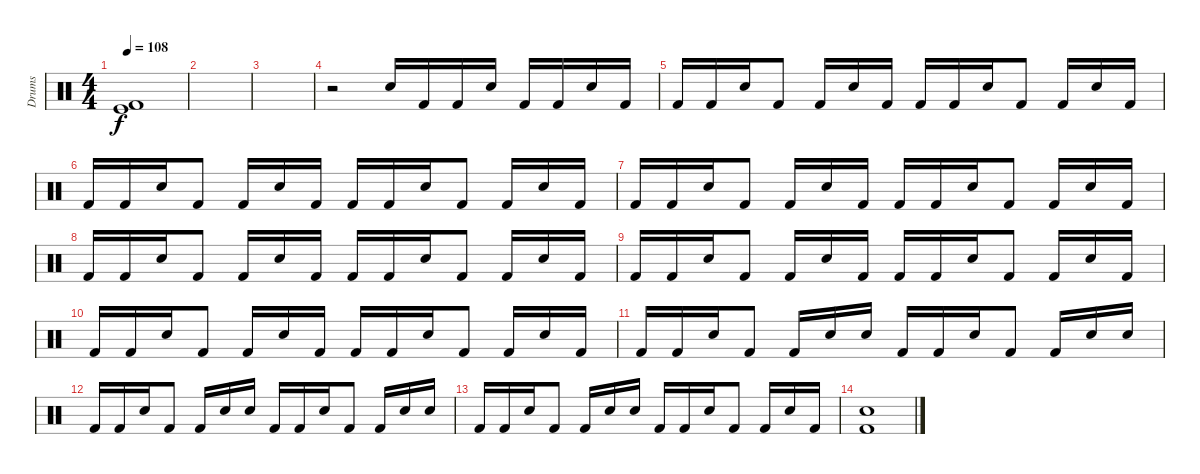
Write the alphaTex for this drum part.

\track ("Drums" "Drums") {instrument percussion}
\staff {score}
\articulation defaults
\ts (4 4)
\tempo 108
\clef neutral
\ks c
("Kick (hit)" "Kick (hit) 2").1{dy f} |
|
|
r.2 "Snare (hit) 2".16 "Kick (hit) 2".16 "Kick (hit) 2".16 "Snare (hit) 2".16 "Kick (hit) 2".16 "Kick (hit) 2".16 "Snare (hit) 2".16 "Kick (hit) 2".16 |
"Kick (hit) 2".16 "Kick (hit) 2".16 "Snare (hit) 2".16 "Kick (hit) 2".8 "Kick (hit) 2".16 "Snare (hit) 2".16 "Kick (hit) 2".16 "Kick (hit) 2".16 "Kick (hit) 2".16 "Snare (hit) 2".16 "Kick (hit) 2".8 "Kick (hit) 2".16 "Snare (hit) 2".16 "Kick (hit) 2".16 |
"Kick (hit) 2".16 "Kick (hit) 2".16 "Snare (hit) 2".16 "Kick (hit) 2".8 "Kick (hit) 2".16 "Snare (hit) 2".16 "Kick (hit) 2".16 "Kick (hit) 2".16 "Kick (hit) 2".16 "Snare (hit) 2".16 "Kick (hit) 2".8 "Kick (hit) 2".16 "Snare (hit) 2".16 "Kick (hit) 2".16 |
"Kick (hit) 2".16 "Kick (hit) 2".16 "Snare (hit) 2".16 "Kick (hit) 2".8 "Kick (hit) 2".16 "Snare (hit) 2".16 "Kick (hit) 2".16 "Kick (hit) 2".16 "Kick (hit) 2".16 "Snare (hit) 2".16 "Kick (hit) 2".8 "Kick (hit) 2".16 "Snare (hit) 2".16 "Kick (hit) 2".16 |
"Kick (hit) 2".16 "Kick (hit) 2".16 "Snare (hit) 2".16 "Kick (hit) 2".8 "Kick (hit) 2".16 "Snare (hit) 2".16 "Kick (hit) 2".16 "Kick (hit) 2".16 "Kick (hit) 2".16 "Snare (hit) 2".16 "Kick (hit) 2".8 "Kick (hit) 2".16 "Snare (hit) 2".16 "Kick (hit) 2".16 |
"Kick (hit) 2".16 "Kick (hit) 2".16 "Snare (hit) 2".16 "Kick (hit) 2".8 "Kick (hit) 2".16 "Snare (hit) 2".16 "Kick (hit) 2".16 "Kick (hit) 2".16 "Kick (hit) 2".16 "Snare (hit) 2".16 "Kick (hit) 2".8 "Kick (hit) 2".16 "Snare (hit) 2".16 "Kick (hit) 2".16 |
"Kick (hit) 2".16 "Kick (hit) 2".16 "Snare (hit) 2".16 "Kick (hit) 2".8 "Kick (hit) 2".16 "Snare (hit) 2".16 "Kick (hit) 2".16 "Kick (hit) 2".16 "Kick (hit) 2".16 "Snare (hit) 2".16 "Kick (hit) 2".8 "Kick (hit) 2".16 "Snare (hit) 2".16 "Kick (hit) 2".16 |
"Kick (hit) 2".16 "Kick (hit) 2".16 "Snare (hit) 2".16 "Kick (hit) 2".8 "Kick (hit) 2".16 "Snare (hit) 2".16 "Snare (hit) 2".16 "Kick (hit) 2".16 "Kick (hit) 2".16 "Snare (hit) 2".16 "Kick (hit) 2".8 "Kick (hit) 2".16 "Snare (hit) 2".16 "Snare (hit) 2".16 |
"Kick (hit) 2".16 "Kick (hit) 2".16 "Snare (hit) 2".16 "Kick (hit) 2".8 "Kick (hit) 2".16 "Snare (hit) 2".16 "Snare (hit) 2".16 "Kick (hit) 2".16 "Kick (hit) 2".16 "Snare (hit) 2".16 "Kick (hit) 2".8 "Kick (hit) 2".16 "Snare (hit) 2".16 "Snare (hit) 2".16 |
"Kick (hit) 2".16 "Kick (hit) 2".16 "Snare (hit) 2".16 "Kick (hit) 2".8 "Kick (hit) 2".16 "Snare (hit) 2".16 "Snare (hit) 2".16 "Kick (hit) 2".16 "Kick (hit) 2".16 "Snare (hit) 2".16 "Kick (hit) 2".8 "Kick (hit) 2".16 "Snare (hit) 2".16 "Kick (hit) 2".16 |
("Kick (hit) 2" "Snare (hit) 2").1
